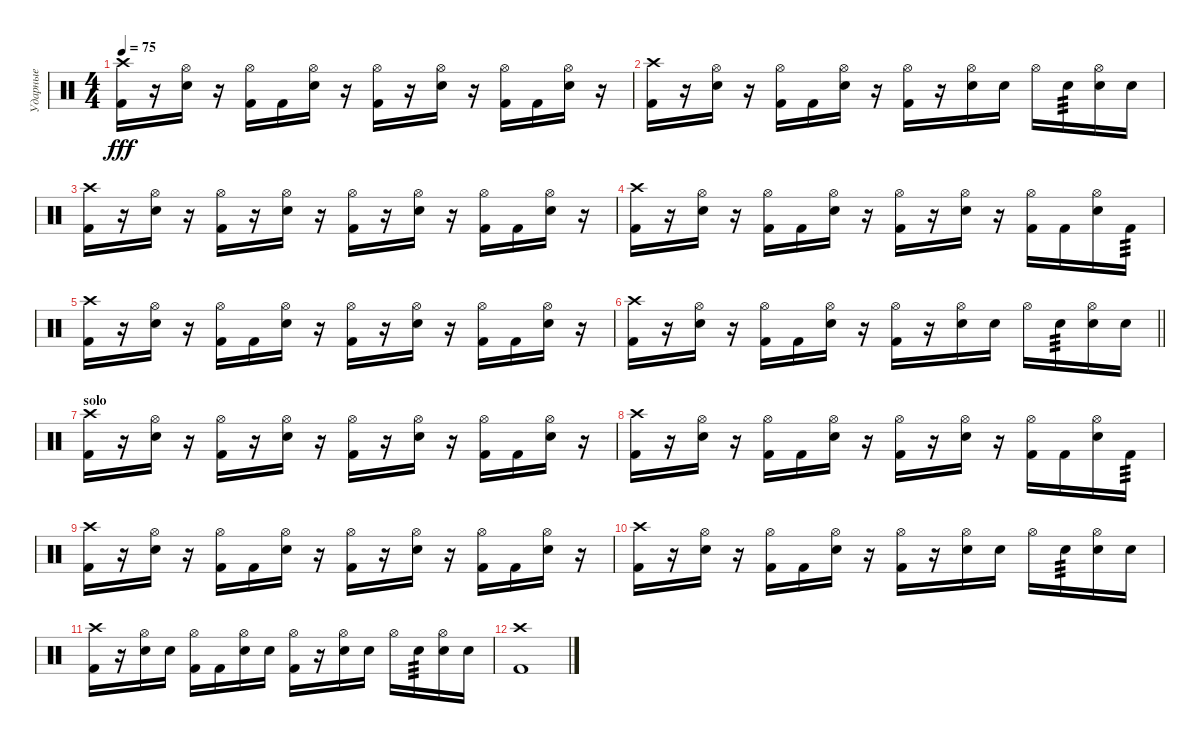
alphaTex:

\track ("Ударные" "Ударные") {instrument percussion}
\staff {score}
\articulation defaults
\ts (4 4)
\tempo 75
\clef neutral
\ks c
("Crash high (hit)" "Kick (hit) 2").16{dy fff} r.16 ("Hi-Hat (open)" "Snare (hit) 2").16 r.16 ("Hi-Hat (open)" "Kick (hit) 2").16 "Kick (hit) 2".16 ("Hi-Hat (open)" "Snare (hit) 2").16 r.16 ("Hi-Hat (open)" "Kick (hit) 2").16 r.16 ("Hi-Hat (open)" "Snare (hit) 2").16 r.16 ("Hi-Hat (open)" "Kick (hit) 2").16 "Kick (hit) 2".16 ("Hi-Hat (open)" "Snare (hit) 2").16 r.16 |
("Crash high (hit)" "Kick (hit) 2").16 r.16 ("Hi-Hat (open)" "Snare (hit) 2").16 r.16 ("Hi-Hat (open)" "Kick (hit) 2").16 "Kick (hit) 2".16 ("Hi-Hat (open)" "Snare (hit) 2").16 r.16 ("Hi-Hat (open)" "Kick (hit) 2").16 r.16 ("Hi-Hat (open)" "Snare (hit) 2").16 "Snare (hit) 2".16 "Hi-Hat (open)".16 "Snare (hit) 2".16{tp 3} ("Hi-Hat (open)" "Snare (hit) 2").16 "Snare (hit) 2".16 |
("Crash high (hit)" "Kick (hit) 2").16 r.16 ("Hi-Hat (open)" "Snare (hit) 2").16 r.16 ("Hi-Hat (open)" "Kick (hit) 2").16 r.16 ("Hi-Hat (open)" "Snare (hit) 2").16 r.16 ("Hi-Hat (open)" "Kick (hit) 2").16 r.16 ("Hi-Hat (open)" "Snare (hit) 2").16 r.16 ("Hi-Hat (open)" "Kick (hit) 2").16 "Kick (hit) 2".16 ("Hi-Hat (open)" "Snare (hit) 2").16 r.16 |
("Crash high (hit)" "Kick (hit) 2").16 r.16 ("Hi-Hat (open)" "Snare (hit) 2").16 r.16 ("Hi-Hat (open)" "Kick (hit) 2").16 "Kick (hit) 2".16 ("Hi-Hat (open)" "Snare (hit) 2").16 r.16 ("Hi-Hat (open)" "Kick (hit) 2").16 r.16 ("Hi-Hat (open)" "Snare (hit) 2").16 r.16 ("Hi-Hat (open)" "Kick (hit) 2").16 "Kick (hit) 2".16 ("Hi-Hat (open)" "Snare (hit) 2").16 "Kick (hit) 2".16{tp 3} |
("Crash high (hit)" "Kick (hit) 2").16 r.16 ("Hi-Hat (open)" "Snare (hit) 2").16 r.16 ("Hi-Hat (open)" "Kick (hit) 2").16 "Kick (hit) 2".16 ("Hi-Hat (open)" "Snare (hit) 2").16 r.16 ("Hi-Hat (open)" "Kick (hit) 2").16 r.16 ("Hi-Hat (open)" "Snare (hit) 2").16 r.16 ("Hi-Hat (open)" "Kick (hit) 2").16 "Kick (hit) 2".16 ("Hi-Hat (open)" "Snare (hit) 2").16 r.16 |
\barLineRight lightlight
("Crash high (hit)" "Kick (hit) 2").16 r.16 ("Hi-Hat (open)" "Snare (hit) 2").16 r.16 ("Hi-Hat (open)" "Kick (hit) 2").16 "Kick (hit) 2".16 ("Hi-Hat (open)" "Snare (hit) 2").16 r.16 ("Hi-Hat (open)" "Kick (hit) 2").16 r.16 ("Hi-Hat (open)" "Snare (hit) 2").16 "Snare (hit) 2".16 "Hi-Hat (open)".16 "Snare (hit) 2".16{tp 3} ("Hi-Hat (open)" "Snare (hit) 2").16 "Snare (hit) 2".16 |
\section ("" "solo")
("Crash high (hit)" "Kick (hit) 2").16 r.16 ("Hi-Hat (open)" "Snare (hit) 2").16 r.16 ("Hi-Hat (open)" "Kick (hit) 2").16 r.16 ("Hi-Hat (open)" "Snare (hit) 2").16 r.16 ("Hi-Hat (open)" "Kick (hit) 2").16 r.16 ("Hi-Hat (open)" "Snare (hit) 2").16 r.16 ("Hi-Hat (open)" "Kick (hit) 2").16 "Kick (hit) 2".16 ("Hi-Hat (open)" "Snare (hit) 2").16 r.16 |
("Crash high (hit)" "Kick (hit) 2").16 r.16 ("Hi-Hat (open)" "Snare (hit) 2").16 r.16 ("Hi-Hat (open)" "Kick (hit) 2").16 "Kick (hit) 2".16 ("Hi-Hat (open)" "Snare (hit) 2").16 r.16 ("Hi-Hat (open)" "Kick (hit) 2").16 r.16 ("Hi-Hat (open)" "Snare (hit) 2").16 r.16 ("Hi-Hat (open)" "Kick (hit) 2").16 "Kick (hit) 2".16 ("Hi-Hat (open)" "Snare (hit) 2").16 "Kick (hit) 2".16{tp 3} |
("Crash high (hit)" "Kick (hit) 2").16 r.16 ("Hi-Hat (open)" "Snare (hit) 2").16 r.16 ("Hi-Hat (open)" "Kick (hit) 2").16 "Kick (hit) 2".16 ("Hi-Hat (open)" "Snare (hit) 2").16 r.16 ("Hi-Hat (open)" "Kick (hit) 2").16 r.16 ("Hi-Hat (open)" "Snare (hit) 2").16 r.16 ("Hi-Hat (open)" "Kick (hit) 2").16 "Kick (hit) 2".16 ("Hi-Hat (open)" "Snare (hit) 2").16 r.16 |
("Crash high (hit)" "Kick (hit) 2").16 r.16 ("Hi-Hat (open)" "Snare (hit) 2").16 r.16 ("Hi-Hat (open)" "Kick (hit) 2").16 "Kick (hit) 2".16 ("Hi-Hat (open)" "Snare (hit) 2").16 r.16 ("Hi-Hat (open)" "Kick (hit) 2").16 r.16 ("Hi-Hat (open)" "Snare (hit) 2").16 "Snare (hit) 2".16 "Hi-Hat (open)".16 "Snare (hit) 2".16{tp 3} ("Hi-Hat (open)" "Snare (hit) 2").16 "Snare (hit) 2".16 |
("Crash high (hit)" "Kick (hit) 2").16 r.16 ("Hi-Hat (open)" "Snare (hit) 2").16 "Snare (hit) 2".16 ("Hi-Hat (open)" "Kick (hit) 2").16 "Kick (hit) 2".16 ("Hi-Hat (open)" "Snare (hit) 2").16 "Snare (hit) 2".16 ("Hi-Hat (open)" "Kick (hit) 2").16 r.16 ("Hi-Hat (open)" "Snare (hit) 2").16 "Snare (hit) 2".16 "Hi-Hat (open)".16 "Snare (hit) 2".16{tp 3} ("Hi-Hat (open)" "Snare (hit) 2").16 "Snare (hit) 2".16 |
("Crash high (hit)" "Kick (hit) 2").1
